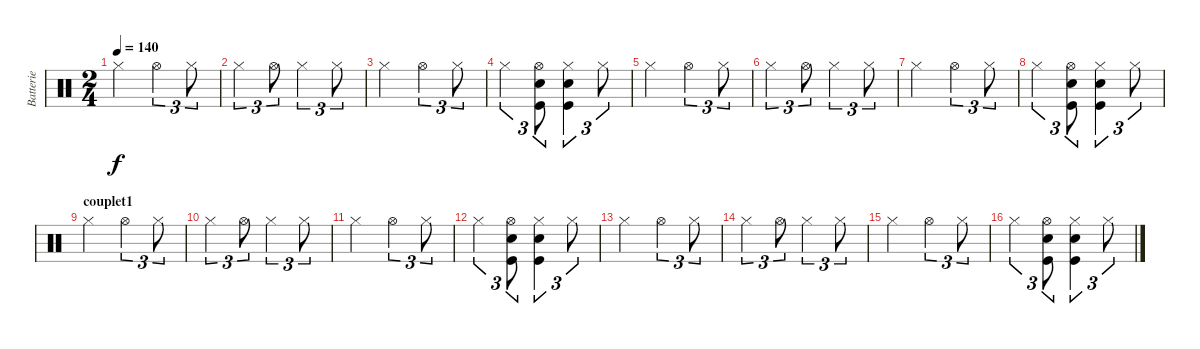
\track ("Batterie" "Batterie") {instrument percussion}
\staff {score}
\articulation defaults
\ts (2 4)
\tempo 140
\clef neutral
\ks c "Hi-Hat (closed)".4{dy f} "Hi-Hat (open)".4{tu (3 2)} "Hi-Hat (closed)".8{tu (3 2)}
|
"Hi-Hat (closed)".4{tu (3 2)} "Hi-Hat (open)".8{tu (3 2)} "Hi-Hat (closed)".4{tu (3 2)} "Hi-Hat (closed)".8{tu (3 2)} |
"Hi-Hat (closed)".4 "Hi-Hat (open)".4{tu (3 2)} "Hi-Hat (closed)".8{tu (3 2)} |
"Hi-Hat (closed)".4{tu (3 2)} ("Hi-Hat (open)" "Snare (hit) 2" "Kick (hit)").8{tu (3 2)} ("Hi-Hat (closed)" "Snare (hit) 2" "Kick (hit)").4{tu (3 2)} "Hi-Hat (closed)".8{tu (3 2)} |
"Hi-Hat (closed)".4 "Hi-Hat (open)".4{tu (3 2)} "Hi-Hat (closed)".8{tu (3 2)} |
"Hi-Hat (closed)".4{tu (3 2)} "Hi-Hat (open)".8{tu (3 2)} "Hi-Hat (closed)".4{tu (3 2)} "Hi-Hat (closed)".8{tu (3 2)} |
"Hi-Hat (closed)".4 "Hi-Hat (open)".4{tu (3 2)} "Hi-Hat (closed)".8{tu (3 2)} |
"Hi-Hat (closed)".4{tu (3 2)} ("Hi-Hat (open)" "Snare (hit) 2" "Kick (hit)").8{tu (3 2)} ("Hi-Hat (closed)" "Snare (hit) 2" "Kick (hit)").4{tu (3 2)} "Hi-Hat (closed)".8{tu (3 2)} |
\section ("" "couplet1")
"Hi-Hat (closed)".4 "Hi-Hat (open)".4{tu (3 2)} "Hi-Hat (closed)".8{tu (3 2)} |
"Hi-Hat (closed)".4{tu (3 2)} "Hi-Hat (open)".8{tu (3 2)} "Hi-Hat (closed)".4{tu (3 2)} "Hi-Hat (closed)".8{tu (3 2)} |
"Hi-Hat (closed)".4 "Hi-Hat (open)".4{tu (3 2)} "Hi-Hat (closed)".8{tu (3 2)} |
"Hi-Hat (closed)".4{tu (3 2)} ("Hi-Hat (open)" "Snare (hit) 2" "Kick (hit)").8{tu (3 2)} ("Hi-Hat (closed)" "Snare (hit) 2" "Kick (hit)").4{tu (3 2)} "Hi-Hat (closed)".8{tu (3 2)} |
"Hi-Hat (closed)".4 "Hi-Hat (open)".4{tu (3 2)} "Hi-Hat (closed)".8{tu (3 2)} |
"Hi-Hat (closed)".4{tu (3 2)} "Hi-Hat (open)".8{tu (3 2)} "Hi-Hat (closed)".4{tu (3 2)} "Hi-Hat (closed)".8{tu (3 2)} |
"Hi-Hat (closed)".4 "Hi-Hat (open)".4{tu (3 2)} "Hi-Hat (closed)".8{tu (3 2)} |
"Hi-Hat (closed)".4{tu (3 2)} ("Hi-Hat (open)" "Snare (hit) 2" "Kick (hit)").8{tu (3 2)} ("Hi-Hat (closed)" "Snare (hit) 2" "Kick (hit)").4{tu (3 2)} "Hi-Hat (closed)".8{tu (3 2)}
